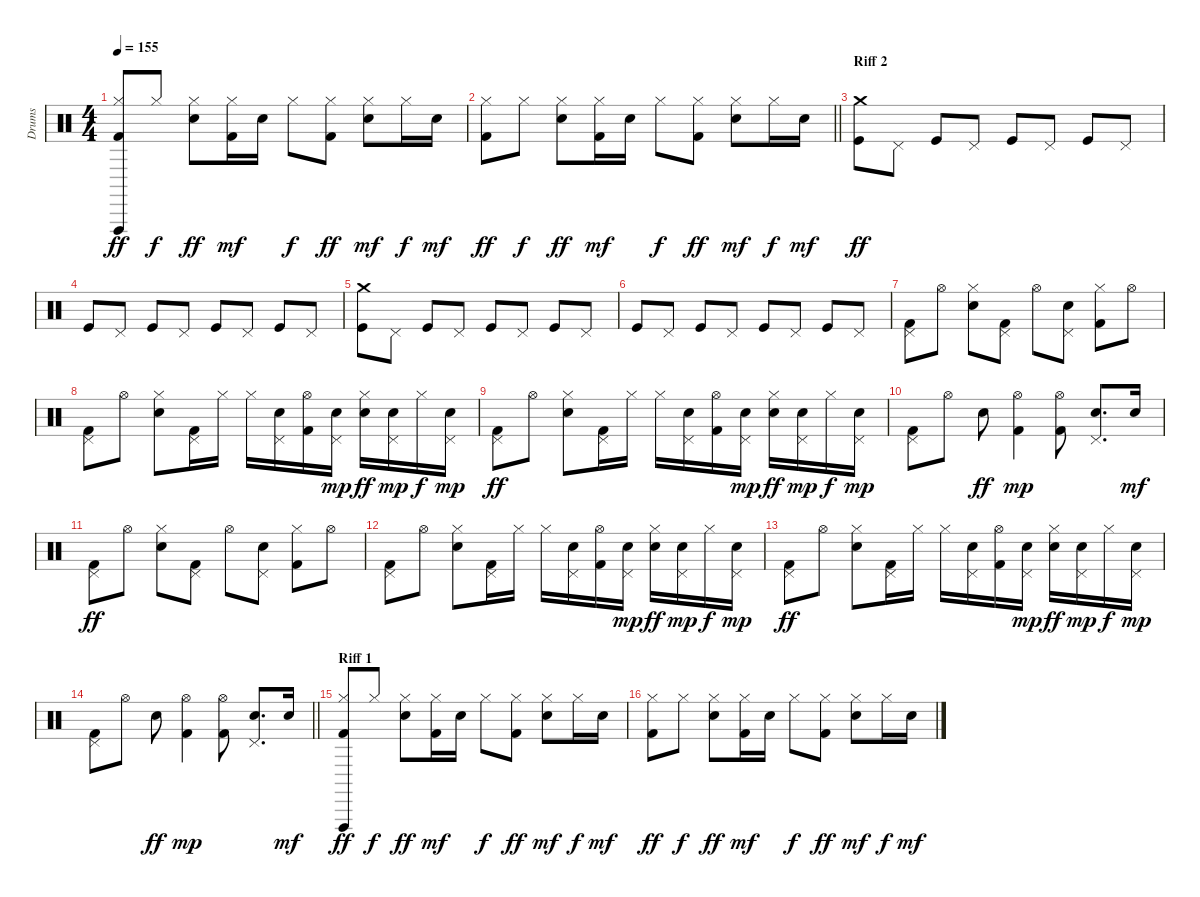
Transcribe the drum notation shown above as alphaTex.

\track ("Drums" "Drums") {instrument percussion}
\staff {score}
\articulation defaults
\ts (4 4)
\tempo 155
\clef neutral
\ks c
("Kick (hit) 2" "Hi-Hat (closed)" "Vibraslap (hit)").8{dy ff} "Hi-Hat (closed)".8{dy f} ("Snare (hit) 2" "Hi-Hat (closed)").8{dy ff} ("Kick (hit) 2" "Hi-Hat (closed)").16{dy mf} "Snare (hit) 2".16 "Hi-Hat (closed)".8{dy f} ("Kick (hit) 2" "Hi-Hat (closed)").8{dy ff} ("Snare (hit) 2" "Hi-Hat (closed)").8{dy mf} "Hi-Hat (closed)".16{dy f} "Snare (hit) 2".16{dy mf} |
\barLineRight lightlight
("Kick (hit) 2" "Hi-Hat (closed)").8{dy ff} "Hi-Hat (closed)".8{dy f} ("Snare (hit) 2" "Hi-Hat (closed)").8{dy ff} ("Kick (hit) 2" "Hi-Hat (closed)").16{dy mf} "Snare (hit) 2".16 "Hi-Hat (closed)".8{dy f} ("Kick (hit) 2" "Hi-Hat (closed)").8{dy ff} ("Snare (hit) 2" "Hi-Hat (closed)").8{dy mf} "Hi-Hat (closed)".16{dy f} "Snare (hit) 2".16{dy mf} |
\section ("" "Riff 2")
("Kick (hit)" "Crash medium (hit)").8{dy ff} "Pedal Hi-Hat (hit)".8 "Kick (hit)".8 "Pedal Hi-Hat (hit)".8 "Kick (hit)".8 "Pedal Hi-Hat (hit)".8 "Kick (hit)".8 "Pedal Hi-Hat (hit)".8 |
"Kick (hit)".8 "Pedal Hi-Hat (hit)".8 "Kick (hit)".8 "Pedal Hi-Hat (hit)".8 "Kick (hit)".8 "Pedal Hi-Hat (hit)".8 "Kick (hit)".8 "Pedal Hi-Hat (hit)".8 |
("Kick (hit)" "Crash medium (hit)").8 "Pedal Hi-Hat (hit)".8 "Kick (hit)".8 "Pedal Hi-Hat (hit)".8 "Kick (hit)".8 "Pedal Hi-Hat (hit)".8 "Kick (hit)".8 "Pedal Hi-Hat (hit)".8 |
"Kick (hit)".8 "Pedal Hi-Hat (hit)".8 "Kick (hit)".8 "Pedal Hi-Hat (hit)".8 "Kick (hit)".8 "Pedal Hi-Hat (hit)".8 "Kick (hit)".8 "Pedal Hi-Hat (hit)".8 |
("Kick (hit) 2" "Pedal Hi-Hat (hit)").8 "Hi-Hat (open)".8 ("Electric Snare (hit)" "Hi-Hat (closed)").8 ("Kick (hit) 2" "Pedal Hi-Hat (hit)").8 "Hi-Hat (open)".8 ("Electric Snare (hit)" "Pedal Hi-Hat (hit)").8 ("Kick (hit) 2" "Hi-Hat (closed)").8 "Hi-Hat (open)".8 |
("Kick (hit) 2" "Pedal Hi-Hat (hit)").8 "Hi-Hat (open)".8 ("Electric Snare (hit)" "Hi-Hat (closed)").8 ("Kick (hit) 2" "Pedal Hi-Hat (hit)").16 "Hi-Hat (closed)".16 "Hi-Hat (closed)".16 ("Snare (hit) 2" "Pedal Hi-Hat (hit)").16 ("Kick (hit) 2" "Hi-Hat (open)").16 ("Snare (hit) 2" "Pedal Hi-Hat (hit)").16{dy mp} ("Electric Snare (hit)" "Hi-Hat (closed)").16{dy ff} ("Snare (hit) 2" "Pedal Hi-Hat (hit)").16{dy mp} "Hi-Hat (closed)".16{dy f} ("Snare (hit) 2" "Pedal Hi-Hat (hit)").16{dy mp} |
("Kick (hit) 2" "Pedal Hi-Hat (hit)").8{dy ff} "Hi-Hat (open)".8 ("Electric Snare (hit)" "Hi-Hat (closed)").8 ("Kick (hit) 2" "Pedal Hi-Hat (hit)").16 "Hi-Hat (closed)".16 "Hi-Hat (closed)".16 ("Snare (hit) 2" "Pedal Hi-Hat (hit)").16 ("Kick (hit) 2" "Hi-Hat (open)").16 ("Snare (hit) 2" "Pedal Hi-Hat (hit)").16{dy mp} ("Electric Snare (hit)" "Hi-Hat (closed)").16{dy ff} ("Snare (hit) 2" "Pedal Hi-Hat (hit)").16{dy mp} "Hi-Hat (closed)".16{dy f} ("Snare (hit) 2" "Pedal Hi-Hat (hit)").16{dy mp} |
("Kick (hit) 2" "Pedal Hi-Hat (hit)").8 "Hi-Hat (open)".8 "Electric Snare (hit)".8{dy ff} ("Kick (hit) 2" "Hi-Hat (open)").4{dy mp} ("Kick (hit) 2" "Hi-Hat (open)").8 ("Electric Snare (hit)" "Pedal Hi-Hat (hit)").8{d} "Electric Snare (hit)".16{dy mf} |
("Kick (hit) 2" "Pedal Hi-Hat (hit)").8{dy ff} "Hi-Hat (open)".8 ("Electric Snare (hit)" "Hi-Hat (closed)").8 ("Kick (hit) 2" "Pedal Hi-Hat (hit)").8 "Hi-Hat (open)".8 ("Electric Snare (hit)" "Pedal Hi-Hat (hit)").8 ("Kick (hit) 2" "Hi-Hat (closed)").8 "Hi-Hat (open)".8 |
("Kick (hit) 2" "Pedal Hi-Hat (hit)").8 "Hi-Hat (open)".8 ("Electric Snare (hit)" "Hi-Hat (closed)").8 ("Kick (hit) 2" "Pedal Hi-Hat (hit)").16 "Hi-Hat (closed)".16 "Hi-Hat (closed)".16 ("Snare (hit) 2" "Pedal Hi-Hat (hit)").16 ("Kick (hit) 2" "Hi-Hat (open)").16 ("Snare (hit) 2" "Pedal Hi-Hat (hit)").16{dy mp} ("Electric Snare (hit)" "Hi-Hat (closed)").16{dy ff} ("Snare (hit) 2" "Pedal Hi-Hat (hit)").16{dy mp} "Hi-Hat (closed)".16{dy f} ("Snare (hit) 2" "Pedal Hi-Hat (hit)").16{dy mp} |
("Kick (hit) 2" "Pedal Hi-Hat (hit)").8{dy ff} "Hi-Hat (open)".8 ("Electric Snare (hit)" "Hi-Hat (closed)").8 ("Kick (hit) 2" "Pedal Hi-Hat (hit)").16 "Hi-Hat (closed)".16 "Hi-Hat (closed)".16 ("Snare (hit) 2" "Pedal Hi-Hat (hit)").16 ("Kick (hit) 2" "Hi-Hat (open)").16 ("Snare (hit) 2" "Pedal Hi-Hat (hit)").16{dy mp} ("Electric Snare (hit)" "Hi-Hat (closed)").16{dy ff} ("Snare (hit) 2" "Pedal Hi-Hat (hit)").16{dy mp} "Hi-Hat (closed)".16{dy f} ("Snare (hit) 2" "Pedal Hi-Hat (hit)").16{dy mp} |
\barLineRight lightlight
("Kick (hit) 2" "Pedal Hi-Hat (hit)").8 "Hi-Hat (open)".8 "Electric Snare (hit)".8{dy ff} ("Kick (hit) 2" "Hi-Hat (open)").4{dy mp} ("Kick (hit) 2" "Hi-Hat (open)").8 ("Electric Snare (hit)" "Pedal Hi-Hat (hit)").8{d} "Electric Snare (hit)".16{dy mf} |
\section ("" "Riff 1")
("Kick (hit) 2" "Hi-Hat (closed)" "Vibraslap (hit)").8{dy ff} "Hi-Hat (closed)".8{dy f} ("Snare (hit) 2" "Hi-Hat (closed)").8{dy ff} ("Kick (hit) 2" "Hi-Hat (closed)").16{dy mf} "Snare (hit) 2".16 "Hi-Hat (closed)".8{dy f} ("Kick (hit) 2" "Hi-Hat (closed)").8{dy ff} ("Snare (hit) 2" "Hi-Hat (closed)").8{dy mf} "Hi-Hat (closed)".16{dy f} "Snare (hit) 2".16{dy mf} |
("Kick (hit) 2" "Hi-Hat (closed)").8{dy ff} "Hi-Hat (closed)".8{dy f} ("Snare (hit) 2" "Hi-Hat (closed)").8{dy ff} ("Kick (hit) 2" "Hi-Hat (closed)").16{dy mf} "Snare (hit) 2".16 "Hi-Hat (closed)".8{dy f} ("Kick (hit) 2" "Hi-Hat (closed)").8{dy ff} ("Snare (hit) 2" "Hi-Hat (closed)").8{dy mf} "Hi-Hat (closed)".16{dy f} "Snare (hit) 2".16{dy mf}
